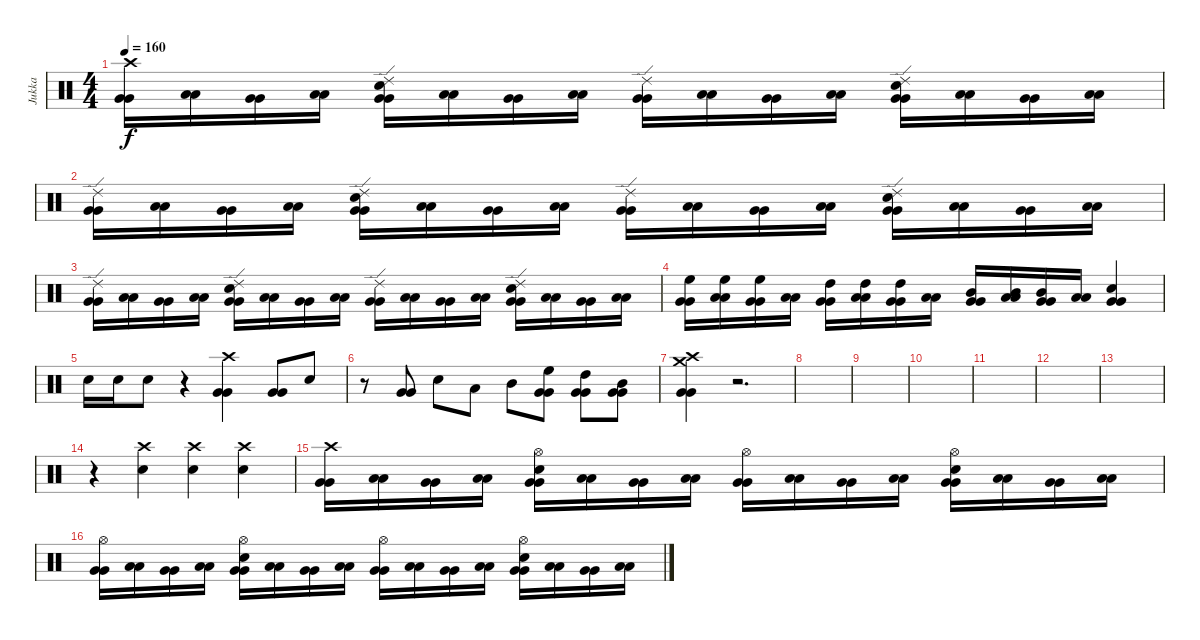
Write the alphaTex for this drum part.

\track ("Jukka" "Jukka") {instrument percussion}
\staff {score}
\articulation defaults
\ts (4 4)
\tempo 160
\clef neutral
\ks c
("Crash high (hit)" "Very Low Tom (hit)" "Very Low Tom (hit)").16{dy f} ("Low Floor Tom (hit)" "Low Floor Tom (hit)").16 ("Very Low Tom (hit)" "Very Low Tom (hit)").16 ("Low Floor Tom (hit)" "Low Floor Tom (hit)").16 ("Electric Snare (hit)" "Ride (edge) 2" "Very Low Tom (hit)" "Very Low Tom (hit)").16 ("Low Floor Tom (hit)" "Low Floor Tom (hit)").16 ("Very Low Tom (hit)" "Very Low Tom (hit)").16 ("Low Floor Tom (hit)" "Low Floor Tom (hit)").16 ("Ride (edge) 2" "Very Low Tom (hit)" "Very Low Tom (hit)").16 ("Low Floor Tom (hit)" "Low Floor Tom (hit)").16 ("Very Low Tom (hit)" "Very Low Tom (hit)").16 ("Low Floor Tom (hit)" "Low Floor Tom (hit)").16 ("Electric Snare (hit)" "Ride (edge) 2" "Very Low Tom (hit)" "Very Low Tom (hit)").16 ("Low Floor Tom (hit)" "Low Floor Tom (hit)").16 ("Very Low Tom (hit)" "Very Low Tom (hit)").16 ("Low Floor Tom (hit)" "Low Floor Tom (hit)").16 |
("Ride (edge) 2" "Very Low Tom (hit)" "Very Low Tom (hit)").16 ("Low Floor Tom (hit)" "Low Floor Tom (hit)").16 ("Very Low Tom (hit)" "Very Low Tom (hit)").16 ("Low Floor Tom (hit)" "Low Floor Tom (hit)").16 ("Electric Snare (hit)" "Ride (edge) 2" "Very Low Tom (hit)" "Very Low Tom (hit)").16 ("Low Floor Tom (hit)" "Low Floor Tom (hit)").16 ("Very Low Tom (hit)" "Very Low Tom (hit)").16 ("Low Floor Tom (hit)" "Low Floor Tom (hit)").16 ("Ride (edge) 2" "Very Low Tom (hit)" "Very Low Tom (hit)").16 ("Low Floor Tom (hit)" "Low Floor Tom (hit)").16 ("Very Low Tom (hit)" "Very Low Tom (hit)").16 ("Low Floor Tom (hit)" "Low Floor Tom (hit)").16 ("Electric Snare (hit)" "Ride (edge) 2" "Very Low Tom (hit)" "Very Low Tom (hit)").16 ("Low Floor Tom (hit)" "Low Floor Tom (hit)").16 ("Very Low Tom (hit)" "Very Low Tom (hit)").16 ("Low Floor Tom (hit)" "Low Floor Tom (hit)").16 |
("Ride (edge) 2" "Very Low Tom (hit)" "Very Low Tom (hit)").16 ("Low Floor Tom (hit)" "Low Floor Tom (hit)").16 ("Very Low Tom (hit)" "Very Low Tom (hit)").16 ("Low Floor Tom (hit)" "Low Floor Tom (hit)").16 ("Electric Snare (hit)" "Ride (edge) 2" "Very Low Tom (hit)" "Very Low Tom (hit)").16 ("Low Floor Tom (hit)" "Low Floor Tom (hit)").16 ("Very Low Tom (hit)" "Very Low Tom (hit)").16 ("Low Floor Tom (hit)" "Low Floor Tom (hit)").16 ("Ride (edge) 2" "Very Low Tom (hit)" "Very Low Tom (hit)").16 ("Low Floor Tom (hit)" "Low Floor Tom (hit)").16 ("Very Low Tom (hit)" "Very Low Tom (hit)").16 ("Low Floor Tom (hit)" "Low Floor Tom (hit)").16 ("Electric Snare (hit)" "Ride (edge) 2" "Very Low Tom (hit)" "Very Low Tom (hit)").16 ("Low Floor Tom (hit)" "Low Floor Tom (hit)").16 ("Very Low Tom (hit)" "Very Low Tom (hit)").16 ("Low Floor Tom (hit)" "Low Floor Tom (hit)").16 |
("High Floor Tom (hit)" "Very Low Tom (hit)" "Very Low Tom (hit)").16 ("High Floor Tom (hit)" "Low Floor Tom (hit)" "Low Floor Tom (hit)").16 ("High Floor Tom (hit)" "Very Low Tom (hit)" "Very Low Tom (hit)").16 ("Low Floor Tom (hit)" "Low Floor Tom (hit)").16 ("High Tom (hit)" "Very Low Tom (hit)" "Very Low Tom (hit)").16 ("High Tom (hit)" "Low Floor Tom (hit)" "Low Floor Tom (hit)").16 ("High Tom (hit)" "Very Low Tom (hit)" "Very Low Tom (hit)").16 ("Low Floor Tom (hit)" "Low Floor Tom (hit)").16 ("Mid Tom (hit)" "Very Low Tom (hit)" "Very Low Tom (hit)").16 ("Mid Tom (hit)" "Low Floor Tom (hit)" "Low Floor Tom (hit)").16 ("Mid Tom (hit)" "Very Low Tom (hit)" "Very Low Tom (hit)").16 ("Low Floor Tom (hit)" "Low Floor Tom (hit)").16 ("Electric Snare (hit)" "Very Low Tom (hit)" "Very Low Tom (hit)").4 |
"Electric Snare (hit)".16 "Electric Snare (hit)".16 "Electric Snare (hit)".8 r.4 ("Crash high (hit)" "Very Low Tom (hit)" "Very Low Tom (hit)").4 ("Very Low Tom (hit)" "Very Low Tom (hit)").8 "Electric Snare (hit)".8 |
r.8 ("Very Low Tom (hit)" "Very Low Tom (hit)").8 "Electric Snare (hit)".8 "Low Tom (hit)".8 "Mid Tom (hit)".8 ("High Floor Tom (hit)" "Very Low Tom (hit)" "Very Low Tom (hit)").8 ("High Tom (hit)" "Very Low Tom (hit)" "Very Low Tom (hit)").8 ("Mid Tom (hit)" "Very Low Tom (hit)" "Very Low Tom (hit)").8 |
("Crash high (hit)" "Crash medium (hit)" "Very Low Tom (hit)" "Very Low Tom (hit)").4 r.2{d} |
|
|
|
|
|
|
r.4 ("Crash high (hit)" "Electric Snare (hit)").4 ("Crash high (hit)" "Electric Snare (hit)").4 ("Crash high (hit)" "Electric Snare (hit)").4 |
("Crash high (hit)" "Very Low Tom (hit)" "Very Low Tom (hit)").16 ("Low Floor Tom (hit)" "Low Floor Tom (hit)").16 ("Very Low Tom (hit)" "Very Low Tom (hit)").16 ("Low Floor Tom (hit)" "Low Floor Tom (hit)").16 ("Hi-Hat (open)" "Electric Snare (hit)" "Very Low Tom (hit)" "Very Low Tom (hit)").16 ("Low Floor Tom (hit)" "Low Floor Tom (hit)").16 ("Very Low Tom (hit)" "Very Low Tom (hit)").16 ("Low Floor Tom (hit)" "Low Floor Tom (hit)").16 ("Hi-Hat (open)" "Very Low Tom (hit)" "Very Low Tom (hit)").16 ("Low Floor Tom (hit)" "Low Floor Tom (hit)").16 ("Very Low Tom (hit)" "Very Low Tom (hit)").16 ("Low Floor Tom (hit)" "Low Floor Tom (hit)").16 ("Hi-Hat (open)" "Electric Snare (hit)" "Very Low Tom (hit)" "Very Low Tom (hit)").16 ("Low Floor Tom (hit)" "Low Floor Tom (hit)").16 ("Very Low Tom (hit)" "Very Low Tom (hit)").16 ("Low Floor Tom (hit)" "Low Floor Tom (hit)").16 |
("Hi-Hat (open)" "Very Low Tom (hit)" "Very Low Tom (hit)").16 ("Low Floor Tom (hit)" "Low Floor Tom (hit)").16 ("Very Low Tom (hit)" "Very Low Tom (hit)").16 ("Low Floor Tom (hit)" "Low Floor Tom (hit)").16 ("Hi-Hat (open)" "Electric Snare (hit)" "Very Low Tom (hit)" "Very Low Tom (hit)").16 ("Low Floor Tom (hit)" "Low Floor Tom (hit)").16 ("Very Low Tom (hit)" "Very Low Tom (hit)").16 ("Low Floor Tom (hit)" "Low Floor Tom (hit)").16 ("Hi-Hat (open)" "Very Low Tom (hit)" "Very Low Tom (hit)").16 ("Low Floor Tom (hit)" "Low Floor Tom (hit)").16 ("Very Low Tom (hit)" "Very Low Tom (hit)").16 ("Low Floor Tom (hit)" "Low Floor Tom (hit)").16 ("Hi-Hat (open)" "Electric Snare (hit)" "Very Low Tom (hit)" "Very Low Tom (hit)").16 ("Low Floor Tom (hit)" "Low Floor Tom (hit)").16 ("Very Low Tom (hit)" "Very Low Tom (hit)").16 ("Low Floor Tom (hit)" "Low Floor Tom (hit)").16
